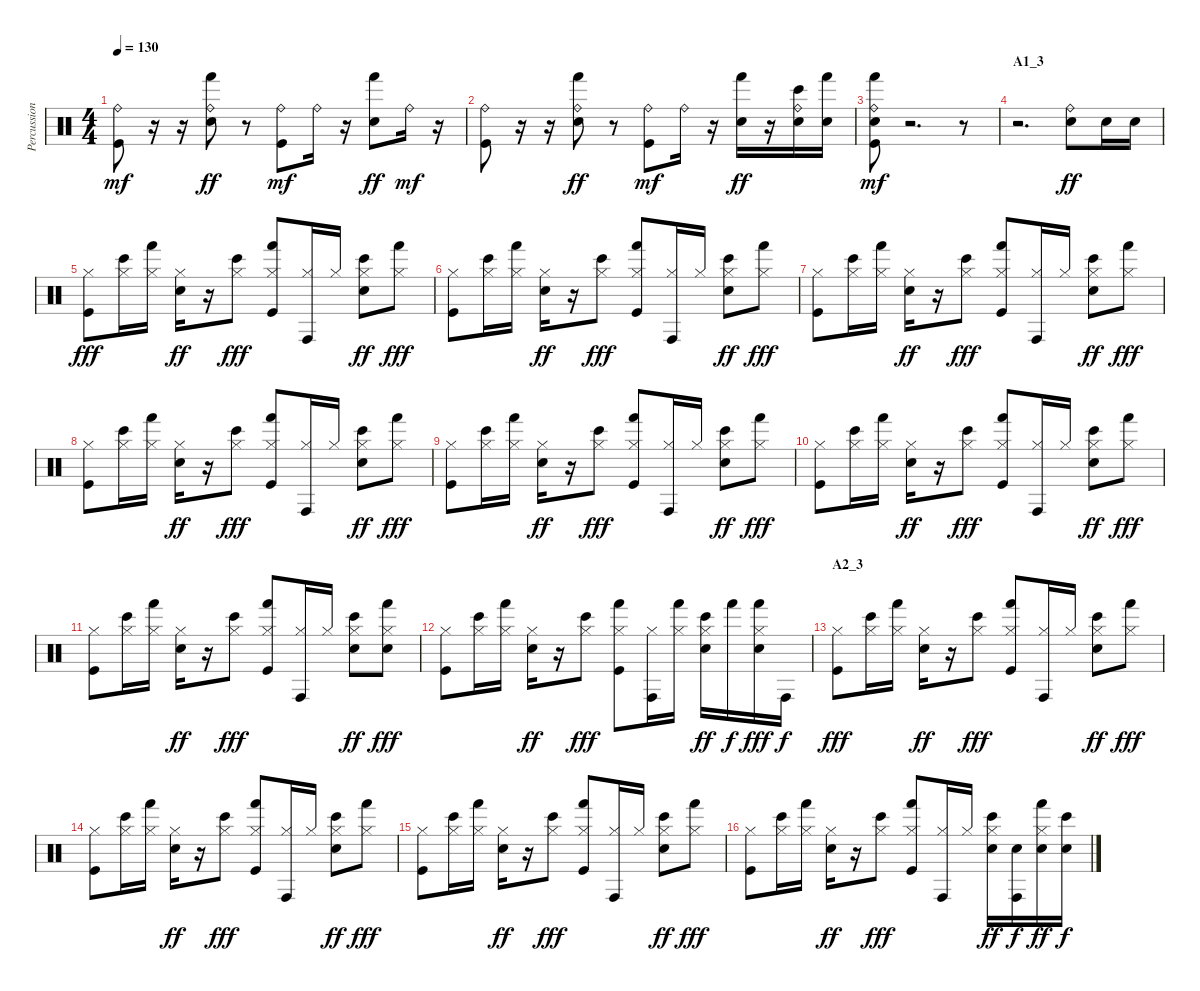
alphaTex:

\track ("Percussion" "Percussion") {instrument percussion}
\staff {score}
\articulation defaults
\ts (4 4)
\tempo 130
\clef neutral
\ks c
("Ride (bell)" "Kick (hit)").8{dy mf} r.16 r.16 ("Ride (bell)" "Hand (hit)" "Electric Snare (hit)").8{dy ff} r.8 ("Ride (bell)" "Kick (hit)").8{dy mf} "Ride (bell)".16 r.16 ("Hand (hit)" "Electric Snare (hit)").8{dy ff} "Ride (bell)".16{dy mf} r.16 |
("Ride (bell)" "Kick (hit)").8 r.16 r.16 ("Ride (bell)" "Hand (hit)" "Electric Snare (hit)").8{dy ff} r.8 ("Ride (bell)" "Kick (hit)").8{dy mf} "Ride (bell)".16 r.16 ("Hand (hit)" "Electric Snare (hit)").16{dy ff} r.16 ("Ride (bell)" "Bongo High (hit)" "Electric Snare (hit)").16 ("Hand (hit)" "Electric Snare (hit)").16 |
("Ride (bell)" "Hand (hit)" "Electric Snare (hit)" "Kick (hit)").8{dy mf} r.2{d} r.8 |
\section ("" "A1_3")
r.2{d} ("Ride (bell)" "Electric Snare (hit)").8{dy ff} "Electric Snare (hit)".16 "Electric Snare (hit)".16 |
("Hi-Hat (closed)" "Kick (hit)").8{dy fff} ("Hi-Hat (closed)" "Bongo High (hit)").16 ("Hi-Hat (closed)" "Hand (hit)").16 ("Hi-Hat (closed)" "Electric Snare (hit)").16{dy ff} r.16 ("Hi-Hat (closed)" "Bongo High (hit)").8{dy fff} ("Hi-Hat (closed)" "Hand (hit)" "Kick (hit)").8 ("Hi-Hat (closed)" "Conga high (hit)").16 "Hi-Hat (closed)".16 ("Hi-Hat (closed)" "Bongo High (hit)" "Electric Snare (hit)").8{dy ff} ("Hi-Hat (closed)" "Hand (hit)").8{dy fff} |
("Hi-Hat (closed)" "Kick (hit)").8 ("Hi-Hat (closed)" "Bongo High (hit)").16 ("Hi-Hat (closed)" "Hand (hit)").16 ("Hi-Hat (closed)" "Electric Snare (hit)").16{dy ff} r.16 ("Hi-Hat (closed)" "Bongo High (hit)").8{dy fff} ("Hi-Hat (closed)" "Hand (hit)" "Kick (hit)").8 ("Hi-Hat (closed)" "Conga high (hit)").16 "Hi-Hat (closed)".16 ("Hi-Hat (closed)" "Bongo High (hit)" "Electric Snare (hit)").8{dy ff} ("Hi-Hat (closed)" "Hand (hit)").8{dy fff} |
("Hi-Hat (closed)" "Kick (hit)").8 ("Hi-Hat (closed)" "Bongo High (hit)").16 ("Hi-Hat (closed)" "Hand (hit)").16 ("Hi-Hat (closed)" "Electric Snare (hit)").16{dy ff} r.16 ("Hi-Hat (closed)" "Bongo High (hit)").8{dy fff} ("Hi-Hat (closed)" "Hand (hit)" "Kick (hit)").8 ("Hi-Hat (closed)" "Conga high (hit)").16 "Hi-Hat (closed)".16 ("Hi-Hat (closed)" "Bongo High (hit)" "Electric Snare (hit)").8{dy ff} ("Hi-Hat (closed)" "Hand (hit)").8{dy fff} |
("Hi-Hat (closed)" "Kick (hit)").8 ("Hi-Hat (closed)" "Bongo High (hit)").16 ("Hi-Hat (closed)" "Hand (hit)").16 ("Hi-Hat (closed)" "Electric Snare (hit)").16{dy ff} r.16 ("Hi-Hat (closed)" "Bongo High (hit)").8{dy fff} ("Hi-Hat (closed)" "Hand (hit)" "Kick (hit)").8 ("Hi-Hat (closed)" "Conga high (hit)").16 "Hi-Hat (closed)".16 ("Hi-Hat (closed)" "Bongo High (hit)" "Electric Snare (hit)").8{dy ff} ("Hi-Hat (closed)" "Hand (hit)").8{dy fff} |
("Hi-Hat (closed)" "Kick (hit)").8 ("Hi-Hat (closed)" "Bongo High (hit)").16 ("Hi-Hat (closed)" "Hand (hit)").16 ("Hi-Hat (closed)" "Electric Snare (hit)").16{dy ff} r.16 ("Hi-Hat (closed)" "Bongo High (hit)").8{dy fff} ("Hi-Hat (closed)" "Hand (hit)" "Kick (hit)").8 ("Hi-Hat (closed)" "Conga high (hit)").16 "Hi-Hat (closed)".16 ("Hi-Hat (closed)" "Bongo High (hit)" "Electric Snare (hit)").8{dy ff} ("Hi-Hat (closed)" "Hand (hit)").8{dy fff} |
("Hi-Hat (closed)" "Kick (hit)").8 ("Hi-Hat (closed)" "Bongo High (hit)").16 ("Hi-Hat (closed)" "Hand (hit)").16 ("Hi-Hat (closed)" "Electric Snare (hit)").16{dy ff} r.16 ("Hi-Hat (closed)" "Bongo High (hit)").8{dy fff} ("Hi-Hat (closed)" "Hand (hit)" "Kick (hit)").8 ("Hi-Hat (closed)" "Conga high (hit)").16 "Hi-Hat (closed)".16 ("Hi-Hat (closed)" "Bongo High (hit)" "Electric Snare (hit)").8{dy ff} ("Hi-Hat (closed)" "Hand (hit)").8{dy fff} |
("Hi-Hat (closed)" "Kick (hit)").8 ("Hi-Hat (closed)" "Bongo High (hit)").16 ("Hi-Hat (closed)" "Hand (hit)").16 ("Hi-Hat (closed)" "Electric Snare (hit)").16{dy ff} r.16 ("Hi-Hat (closed)" "Bongo High (hit)").8{dy fff} ("Hi-Hat (closed)" "Hand (hit)" "Kick (hit)").8 ("Hi-Hat (closed)" "Conga high (hit)").16 "Hi-Hat (closed)".16 ("Hi-Hat (closed)" "Bongo High (hit)" "Electric Snare (hit)").8{dy ff} ("Hi-Hat (closed)" "Hand (hit)" "Electric Snare (hit)").8{dy fff} |
("Hi-Hat (closed)" "Kick (hit)").8 ("Hi-Hat (closed)" "Bongo High (hit)").16 ("Hi-Hat (closed)" "Hand (hit)").16 ("Hi-Hat (closed)" "Electric Snare (hit)").16{dy ff} r.16 ("Hi-Hat (closed)" "Bongo High (hit)").8{dy fff} ("Hi-Hat (closed)" "Hand (hit)" "Kick (hit)").8 ("Hi-Hat (closed)" "Conga high (hit)").16 ("Hi-Hat (closed)" "Hand (hit)").16 ("Hi-Hat (closed)" "Bongo High (hit)" "Electric Snare (hit)").16{dy ff} "Hand (hit)".16{dy f} ("Hi-Hat (closed)" "Hand (hit)" "Electric Snare (hit)").16{dy fff} "Conga high (hit)".16{dy f} |
\section ("" "A2_3")
("Hi-Hat (closed)" "Kick (hit)").8{dy fff} ("Hi-Hat (closed)" "Bongo High (hit)").16 ("Hi-Hat (closed)" "Hand (hit)").16 ("Hi-Hat (closed)" "Electric Snare (hit)").16{dy ff} r.16 ("Hi-Hat (closed)" "Bongo High (hit)").8{dy fff} ("Hi-Hat (closed)" "Hand (hit)" "Kick (hit)").8 ("Hi-Hat (closed)" "Conga high (hit)").16 "Hi-Hat (closed)".16 ("Hi-Hat (closed)" "Bongo High (hit)" "Electric Snare (hit)").8{dy ff} ("Hi-Hat (closed)" "Hand (hit)").8{dy fff} |
("Hi-Hat (closed)" "Kick (hit)").8 ("Hi-Hat (closed)" "Bongo High (hit)").16 ("Hi-Hat (closed)" "Hand (hit)").16 ("Hi-Hat (closed)" "Electric Snare (hit)").16{dy ff} r.16 ("Hi-Hat (closed)" "Bongo High (hit)").8{dy fff} ("Hi-Hat (closed)" "Hand (hit)" "Kick (hit)").8 ("Hi-Hat (closed)" "Conga high (hit)").16 "Hi-Hat (closed)".16 ("Hi-Hat (closed)" "Bongo High (hit)" "Electric Snare (hit)").8{dy ff} ("Hi-Hat (closed)" "Hand (hit)").8{dy fff} |
("Hi-Hat (closed)" "Kick (hit)").8 ("Hi-Hat (closed)" "Bongo High (hit)").16 ("Hi-Hat (closed)" "Hand (hit)").16 ("Hi-Hat (closed)" "Electric Snare (hit)").16{dy ff} r.16 ("Hi-Hat (closed)" "Bongo High (hit)").8{dy fff} ("Hi-Hat (closed)" "Hand (hit)" "Kick (hit)").8 ("Hi-Hat (closed)" "Conga high (hit)").16 "Hi-Hat (closed)".16 ("Hi-Hat (closed)" "Bongo High (hit)" "Electric Snare (hit)").8{dy ff} ("Hi-Hat (closed)" "Hand (hit)").8{dy fff} |
("Hi-Hat (closed)" "Kick (hit)").8 ("Hi-Hat (closed)" "Bongo High (hit)").16 ("Hi-Hat (closed)" "Hand (hit)").16 ("Hi-Hat (closed)" "Electric Snare (hit)").16{dy ff} r.16 ("Hi-Hat (closed)" "Bongo High (hit)").8{dy fff} ("Hi-Hat (closed)" "Hand (hit)" "Kick (hit)").8 ("Hi-Hat (closed)" "Conga high (hit)").16 "Hi-Hat (closed)".16 ("Hi-Hat (closed)" "Bongo High (hit)" "Electric Snare (hit)").16{dy ff} ("Conga high (hit)" "Electric Snare (hit)").16{dy f} ("Hi-Hat (closed)" "Hand (hit)" "Electric Snare (hit)").16{dy ff} ("Bongo High (hit)" "Electric Snare (hit)").16{dy f}
